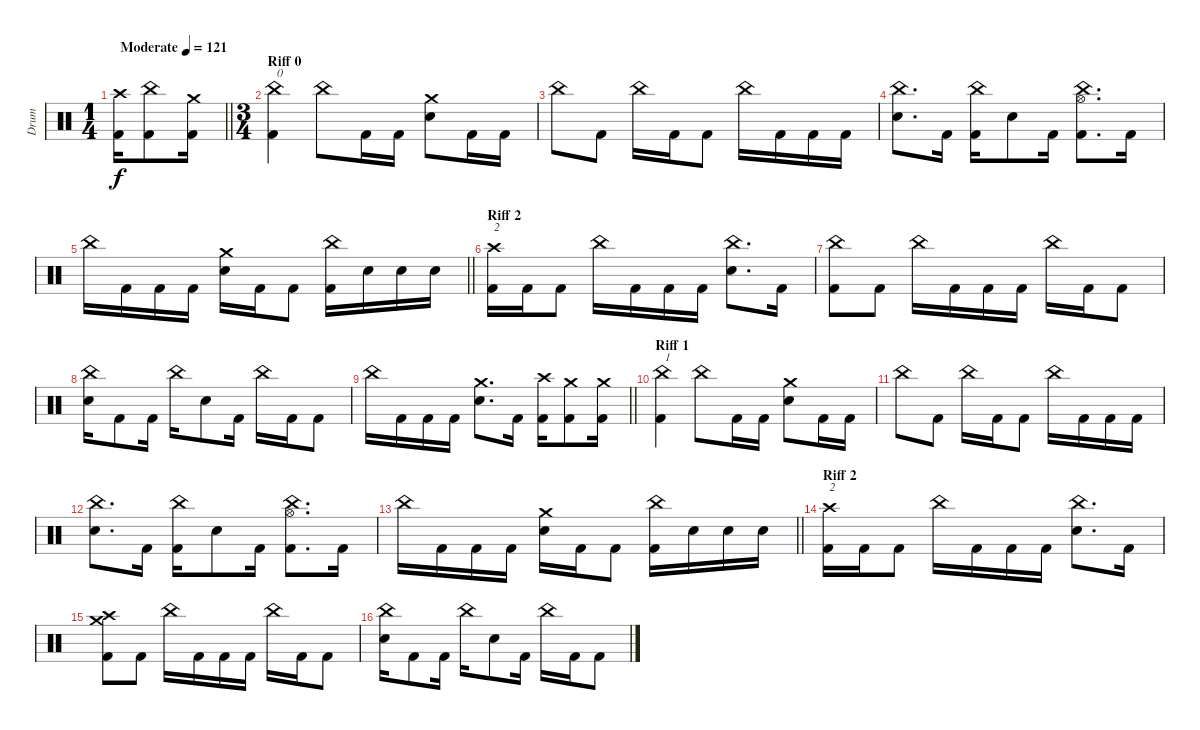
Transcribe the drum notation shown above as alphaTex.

\track ("Drum" "Drum") {instrument percussion}
\staff
\articulation defaults
\ts (1 4)
\tempo (121 "Moderate")
\clef neutral
\barLineRight lightlight
\ks c
("Kick (hit) 2" "Crash high (hit)").16{dy f} ("Kick (hit) 2" "China (hit)").8 ("Kick (hit) 2" "Crash medium (hit)").16 |
\ts (3 4)
\section ("" "Riff 0")
("Kick (hit) 2" "China (hit)").4{txt "0"} "China (hit)".8 "Kick (hit) 2".16 "Kick (hit) 2".16 ("Electric Snare (hit)" "Crash medium (hit)").8 "Kick (hit) 2".16 "Kick (hit) 2".16 |
"China (hit)".8 "Kick (hit) 2".8 "China (hit)".16 "Kick (hit) 2".16 "Kick (hit) 2".8 "China (hit)".16 "Kick (hit) 2".16 "Kick (hit) 2".16 "Kick (hit) 2".16 |
("Electric Snare (hit)" "China (hit)").8{d} "Kick (hit) 2".16 ("Kick (hit) 2" "China (hit)").16 "Electric Snare (hit)".8 "Kick (hit) 2".16 ("Kick (hit) 2" "Hi-Hat (open)" "China (hit)").8{d} "Kick (hit) 2".16 |
\barLineRight lightlight "China (hit)".16 "Kick (hit) 2".16 "Kick (hit) 2".16 "Kick (hit) 2".16
("Electric Snare (hit)" "Crash medium (hit)").16 "Kick (hit) 2".16 "Kick (hit) 2".8 ("Kick (hit) 2" "China (hit)").16 "Electric Snare (hit)".16 "Electric Snare (hit)".16 "Electric Snare (hit)".16 |
\section ("" "Riff 2")
("Kick (hit) 2" "Crash high (hit)").16{txt "2"} "Kick (hit) 2".16 "Kick (hit) 2".8 "China (hit)".16 "Kick (hit) 2".16 "Kick (hit) 2".16 "Kick (hit) 2".16 ("Electric Snare (hit)" "China (hit)").8{d} "Kick (hit) 2".16 |
("Kick (hit) 2" "China (hit)").8 "Kick (hit) 2".8 "China (hit)".16 "Kick (hit) 2".16 "Kick (hit) 2".16 "Kick (hit) 2".16 "China (hit)".16 "Kick (hit) 2".16 "Kick (hit) 2".8 |
("Electric Snare (hit)" "China (hit)").16 "Kick (hit) 2".8 "Kick (hit) 2".16 "China (hit)".16 "Electric Snare (hit)".8 "Kick (hit) 2".16 "China (hit)".16 "Kick (hit) 2".16 "Kick (hit) 2".8 |
\barLineRight lightlight "China (hit)".16 "Kick (hit) 2".16 "Kick (hit) 2".16 "Kick (hit) 2".16
("Electric Snare (hit)" "Crash medium (hit)").8{d} "Kick (hit) 2".16 ("Kick (hit) 2" "Crash high (hit)").16 ("Kick (hit) 2" "Crash medium (hit)").8 ("Kick (hit) 2" "Crash medium (hit)").16 |
\section ("" "Riff 1")
("Kick (hit) 2" "China (hit)").4{txt "1"} "China (hit)".8 "Kick (hit) 2".16 "Kick (hit) 2".16 ("Electric Snare (hit)" "Crash medium (hit)").8 "Kick (hit) 2".16 "Kick (hit) 2".16 |
"China (hit)".8 "Kick (hit) 2".8 "China (hit)".16 "Kick (hit) 2".16 "Kick (hit) 2".8 "China (hit)".16 "Kick (hit) 2".16 "Kick (hit) 2".16 "Kick (hit) 2".16 |
("Electric Snare (hit)" "China (hit)").8{d} "Kick (hit) 2".16 ("Kick (hit) 2" "China (hit)").16 "Electric Snare (hit)".8 "Kick (hit) 2".16 ("Kick (hit) 2" "Hi-Hat (open)" "China (hit)").8{d} "Kick (hit) 2".16 |
\barLineRight lightlight "China (hit)".16 "Kick (hit) 2".16 "Kick (hit) 2".16 "Kick (hit) 2".16
("Electric Snare (hit)" "Crash medium (hit)").16 "Kick (hit) 2".16 "Kick (hit) 2".8 ("Kick (hit) 2" "China (hit)").16 "Electric Snare (hit)".16 "Electric Snare (hit)".16 "Electric Snare (hit)".16 |
\section ("" "Riff 2")
("Kick (hit) 2" "Crash high (hit)").16{txt "2"} "Kick (hit) 2".16 "Kick (hit) 2".8 "China (hit)".16 "Kick (hit) 2".16 "Kick (hit) 2".16 "Kick (hit) 2".16 ("Electric Snare (hit)" "China (hit)").8{d} "Kick (hit) 2".16 |
("Kick (hit) 2" "Crash high (hit)" "Crash medium (hit)").8 "Kick (hit) 2".8 "China (hit)".16 "Kick (hit) 2".16 "Kick (hit) 2".16 "Kick (hit) 2".16 "China (hit)".16 "Kick (hit) 2".16 "Kick (hit) 2".8 |
("Electric Snare (hit)" "China (hit)").16 "Kick (hit) 2".8 "Kick (hit) 2".16 "China (hit)".16 "Electric Snare (hit)".8 "Kick (hit) 2".16 "China (hit)".16 "Kick (hit) 2".16 "Kick (hit) 2".8
